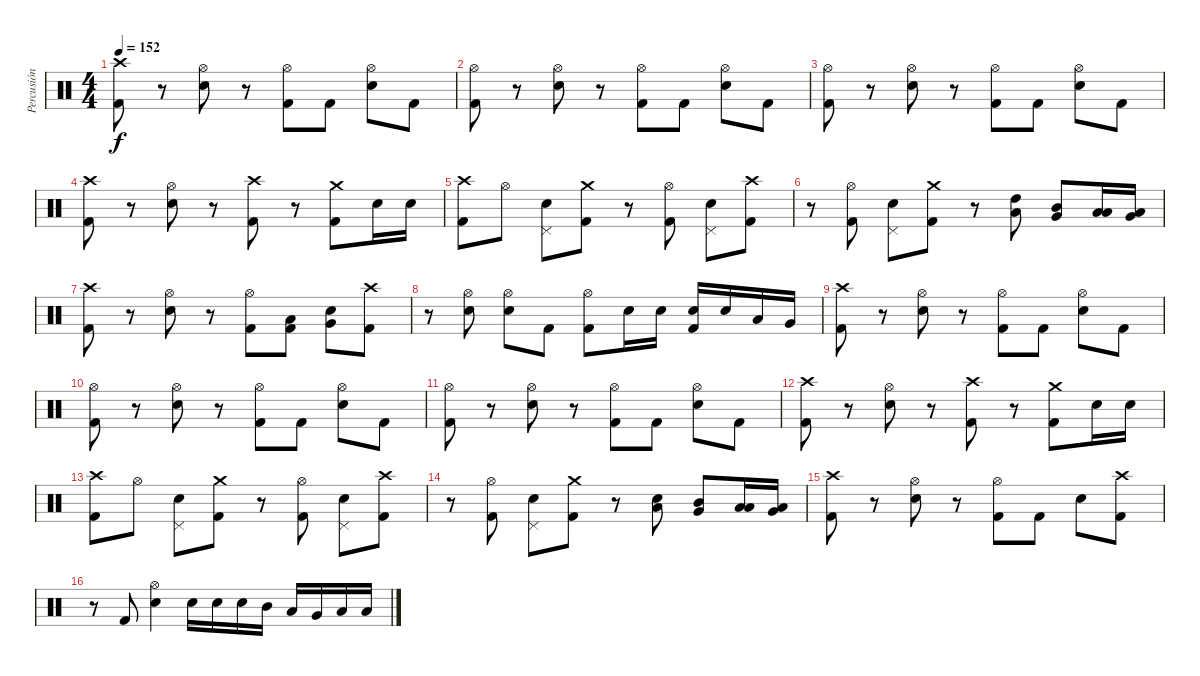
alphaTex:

\track ("Percusión" "Percusión") {instrument percussion}
\staff {score}
\articulation defaults
\ts (4 4)
\tempo 152
\clef neutral
\ks c
("Kick (hit) 2" "Crash high (hit)").8{dy f} r.8 ("Snare (hit) 2" "Hi-Hat (open)").8 r.8 ("Kick (hit) 2" "Hi-Hat (open)").8 "Kick (hit) 2".8 ("Snare (hit) 2" "Hi-Hat (open)").8 "Kick (hit) 2".8 |
("Kick (hit) 2" "Hi-Hat (open)").8 r.8 ("Snare (hit) 2" "Hi-Hat (open)").8 r.8 ("Kick (hit) 2" "Hi-Hat (open)").8 "Kick (hit) 2".8 ("Snare (hit) 2" "Hi-Hat (open)").8 "Kick (hit) 2".8 |
("Kick (hit) 2" "Hi-Hat (open)").8 r.8 ("Snare (hit) 2" "Hi-Hat (open)").8 r.8 ("Kick (hit) 2" "Hi-Hat (open)").8 "Kick (hit) 2".8 ("Snare (hit) 2" "Hi-Hat (open)").8 "Kick (hit) 2".8 |
("Kick (hit) 2" "Crash high (hit)").8 r.8 ("Snare (hit) 2" "Hi-Hat (open)").8 r.8 ("Kick (hit) 2" "Crash high (hit)").8 r.8 ("Kick (hit) 2" "Crash medium (hit)").8 "Snare (hit) 2".16 "Snare (hit) 2".16 |
("Kick (hit) 2" "Crash high (hit)").8 "Hi-Hat (open)".8 ("Snare (hit) 2" "Pedal Hi-Hat (hit)").8 ("Kick (hit) 2" "Crash medium (hit)").8 r.8 ("Kick (hit) 2" "Hi-Hat (open)").8 ("Snare (hit) 2" "Pedal Hi-Hat (hit)").8 ("Kick (hit) 2" "Crash high (hit)").8 |
r.8 ("Kick (hit) 2" "Hi-Hat (open)").8 ("Snare (hit) 2" "Pedal Hi-Hat (hit)").8 ("Kick (hit) 2" "Crash medium (hit)").8 r.8 ("High Tom (hit)" "Low Tom (hit)").8 ("Mid Tom (hit)" "Very Low Tom (hit)").8 ("Low Tom (hit)" "Low Floor Tom (hit)").16 ("Very Low Tom (hit)" "Low Floor Tom (hit)").16 |
("Kick (hit) 2" "Crash high (hit)").8 r.8 ("Snare (hit) 2" "Hi-Hat (open)").8 r.8 ("Kick (hit) 2" "Hi-Hat (open)").8 ("Kick (hit) 2" "Low Tom (hit)").8 ("Snare (hit) 2" "Very Low Tom (hit)").8 ("Kick (hit) 2" "Crash high (hit)").8 |
r.8 ("Snare (hit) 2" "Hi-Hat (open)").8 ("Snare (hit) 2" "Hi-Hat (open)").8 "Kick (hit) 2".8 ("Kick (hit) 2" "Hi-Hat (open)").8 "Snare (hit) 2".16 "Snare (hit) 2".16 ("Kick (hit) 2" "Snare (hit) 2").16 "Snare (hit) 2".16 "Low Tom (hit)".16 "Very Low Tom (hit)".16 |
("Kick (hit) 2" "Crash high (hit)").8 r.8 ("Snare (hit) 2" "Hi-Hat (open)").8 r.8 ("Kick (hit) 2" "Hi-Hat (open)").8 "Kick (hit) 2".8 ("Snare (hit) 2" "Hi-Hat (open)").8 "Kick (hit) 2".8 |
("Kick (hit) 2" "Hi-Hat (open)").8 r.8 ("Snare (hit) 2" "Hi-Hat (open)").8 r.8 ("Kick (hit) 2" "Hi-Hat (open)").8 "Kick (hit) 2".8 ("Snare (hit) 2" "Hi-Hat (open)").8 "Kick (hit) 2".8 |
("Kick (hit) 2" "Hi-Hat (open)").8 r.8 ("Snare (hit) 2" "Hi-Hat (open)").8 r.8 ("Kick (hit) 2" "Hi-Hat (open)").8 "Kick (hit) 2".8 ("Snare (hit) 2" "Hi-Hat (open)").8 "Kick (hit) 2".8 |
("Kick (hit) 2" "Crash high (hit)").8 r.8 ("Snare (hit) 2" "Hi-Hat (open)").8 r.8 ("Kick (hit) 2" "Crash high (hit)").8 r.8 ("Kick (hit) 2" "Crash medium (hit)").8 "Snare (hit) 2".16 "Snare (hit) 2".16 |
("Kick (hit) 2" "Crash high (hit)").8 "Hi-Hat (open)".8 ("Snare (hit) 2" "Pedal Hi-Hat (hit)").8 ("Kick (hit) 2" "Crash medium (hit)").8 r.8 ("Kick (hit) 2" "Hi-Hat (open)").8 ("Snare (hit) 2" "Pedal Hi-Hat (hit)").8 ("Kick (hit) 2" "Crash high (hit)").8 |
r.8 ("Kick (hit) 2" "Hi-Hat (open)").8 ("Snare (hit) 2" "Pedal Hi-Hat (hit)").8 ("Kick (hit) 2" "Crash medium (hit)").8 r.8 ("Snare (hit) 2" "Low Tom (hit)").8 ("Mid Tom (hit)" "Very Low Tom (hit)").8 ("Low Tom (hit)" "Low Floor Tom (hit)").16 ("Very Low Tom (hit)" "Low Floor Tom (hit)").16 |
("Kick (hit) 2" "Crash high (hit)").8 r.8 ("Snare (hit) 2" "Hi-Hat (open)").8 r.8 ("Kick (hit) 2" "Hi-Hat (open)").8 "Kick (hit) 2".8 "Snare (hit) 2".8 ("Kick (hit) 2" "Crash high (hit)").8 |
r.8 "Kick (hit) 2".8 ("Snare (hit) 2" "Hi-Hat (open)").4 "Snare (hit) 2".16 "Snare (hit) 2".16 "Snare (hit) 2".16 "Mid Tom (hit)".16 "Low Tom (hit)".16 "Very Low Tom (hit)".16 "Low Floor Tom (hit)".16 "Low Floor Tom (hit)".16
